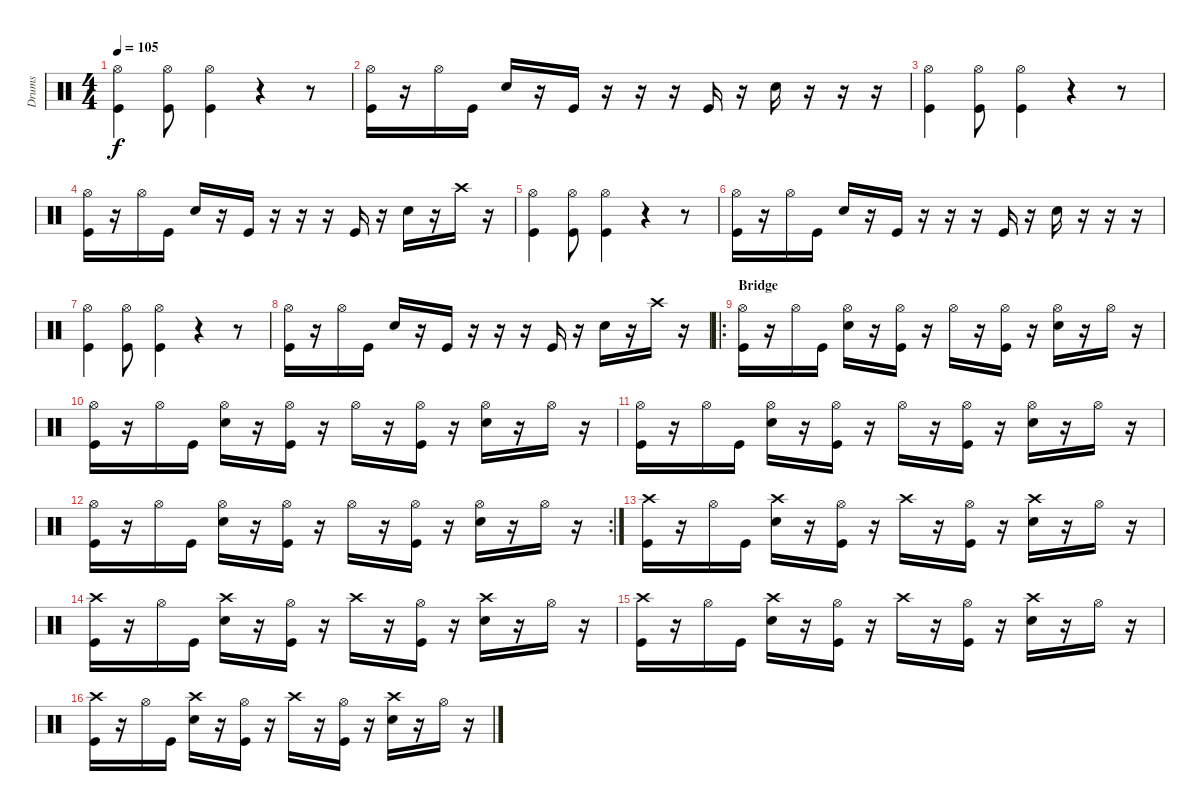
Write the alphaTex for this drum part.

\track ("Drums" "Drums") {instrument percussion}
\staff {score}
\articulation defaults
\ts (4 4)
\tempo 105
\clef neutral
\ks c
("Hi-Hat (open)" "Kick (hit)").4{dy f} ("Hi-Hat (open)" "Kick (hit)").8 ("Hi-Hat (open)" "Kick (hit)").4 r.4 r.8 |
("Hi-Hat (open)" "Kick (hit)").16 r.16 "Hi-Hat (open)".16 "Kick (hit)".16 "Snare (hit) 2".16 r.16 "Kick (hit)".16 r.16 r.16 r.16 "Kick (hit)".16 r.16 "Snare (hit) 2".16 r.16 r.16 r.16 |
("Hi-Hat (open)" "Kick (hit)").4 ("Hi-Hat (open)" "Kick (hit)").8 ("Hi-Hat (open)" "Kick (hit)").4 r.4 r.8 |
("Hi-Hat (open)" "Kick (hit)").16 r.16 "Hi-Hat (open)".16 "Kick (hit)".16 "Snare (hit) 2".16 r.16 "Kick (hit)".16 r.16 r.16 r.16 "Kick (hit)".16 r.16 "Snare (hit) 2".16 r.16 "Crash high (hit)".16 r.16 |
("Hi-Hat (open)" "Kick (hit)").4 ("Hi-Hat (open)" "Kick (hit)").8 ("Hi-Hat (open)" "Kick (hit)").4 r.4 r.8 |
("Hi-Hat (open)" "Kick (hit)").16 r.16 "Hi-Hat (open)".16 "Kick (hit)".16 "Snare (hit) 2".16 r.16 "Kick (hit)".16 r.16 r.16 r.16 "Kick (hit)".16 r.16 "Snare (hit) 2".16 r.16 r.16 r.16 |
("Hi-Hat (open)" "Kick (hit)").4 ("Hi-Hat (open)" "Kick (hit)").8 ("Hi-Hat (open)" "Kick (hit)").4 r.4 r.8 |
("Hi-Hat (open)" "Kick (hit)").16 r.16 "Hi-Hat (open)".16 "Kick (hit)".16 "Snare (hit) 2".16 r.16 "Kick (hit)".16 r.16 r.16 r.16 "Kick (hit)".16 r.16 "Snare (hit) 2".16 r.16 "Crash high (hit)".16 r.16 |
\ro
\section ("" "Bridge")
("Hi-Hat (open)" "Kick (hit)").16 r.16 "Hi-Hat (open)".16 "Kick (hit)".16 ("Hi-Hat (open)" "Snare (hit) 2").16 r.16 ("Hi-Hat (open)" "Kick (hit)").16 r.16 "Hi-Hat (open)".16 r.16 ("Hi-Hat (open)" "Kick (hit)").16 r.16 ("Hi-Hat (open)" "Snare (hit) 2").16 r.16 "Hi-Hat (open)".16 r.16 |
("Hi-Hat (open)" "Kick (hit)").16 r.16 "Hi-Hat (open)".16 "Kick (hit)".16 ("Hi-Hat (open)" "Snare (hit) 2").16 r.16 ("Hi-Hat (open)" "Kick (hit)").16 r.16 "Hi-Hat (open)".16 r.16 ("Hi-Hat (open)" "Kick (hit)").16 r.16 ("Hi-Hat (open)" "Snare (hit) 2").16 r.16 "Hi-Hat (open)".16 r.16 |
("Hi-Hat (open)" "Kick (hit)").16 r.16 "Hi-Hat (open)".16 "Kick (hit)".16 ("Hi-Hat (open)" "Snare (hit) 2").16 r.16 ("Hi-Hat (open)" "Kick (hit)").16 r.16 "Hi-Hat (open)".16 r.16 ("Hi-Hat (open)" "Kick (hit)").16 r.16 ("Hi-Hat (open)" "Snare (hit) 2").16 r.16 "Hi-Hat (open)".16 r.16 |
\rc 2
("Hi-Hat (open)" "Kick (hit)").16 r.16 "Hi-Hat (open)".16 "Kick (hit)".16 ("Hi-Hat (open)" "Snare (hit) 2").16 r.16 ("Hi-Hat (open)" "Kick (hit)").16 r.16 "Hi-Hat (open)".16 r.16 ("Hi-Hat (open)" "Kick (hit)").16 r.16 ("Hi-Hat (open)" "Snare (hit) 2").16 r.16 "Hi-Hat (open)".16 r.16 |
("Crash high (hit)" "Kick (hit)").16 r.16 "Hi-Hat (open)".16 "Kick (hit)".16 ("Crash high (hit)" "Snare (hit) 2").16 r.16 ("Hi-Hat (open)" "Kick (hit)").16 r.16 "Crash high (hit)".16 r.16 ("Hi-Hat (open)" "Kick (hit)").16 r.16 ("Crash high (hit)" "Snare (hit) 2").16 r.16 "Hi-Hat (open)".16 r.16 |
("Crash high (hit)" "Kick (hit)").16 r.16 "Hi-Hat (open)".16 "Kick (hit)".16 ("Crash high (hit)" "Snare (hit) 2").16 r.16 ("Hi-Hat (open)" "Kick (hit)").16 r.16 "Crash high (hit)".16 r.16 ("Hi-Hat (open)" "Kick (hit)").16 r.16 ("Crash high (hit)" "Snare (hit) 2").16 r.16 "Hi-Hat (open)".16 r.16 |
("Crash high (hit)" "Kick (hit)").16 r.16 "Hi-Hat (open)".16 "Kick (hit)".16 ("Crash high (hit)" "Snare (hit) 2").16 r.16 ("Hi-Hat (open)" "Kick (hit)").16 r.16 "Crash high (hit)".16 r.16 ("Hi-Hat (open)" "Kick (hit)").16 r.16 ("Crash high (hit)" "Snare (hit) 2").16 r.16 "Hi-Hat (open)".16 r.16 |
("Crash high (hit)" "Kick (hit)").16 r.16 "Hi-Hat (open)".16 "Kick (hit)".16 ("Crash high (hit)" "Snare (hit) 2").16 r.16 ("Hi-Hat (open)" "Kick (hit)").16 r.16 "Crash high (hit)".16 r.16 ("Hi-Hat (open)" "Kick (hit)").16 r.16 ("Crash high (hit)" "Snare (hit) 2").16 r.16 "Hi-Hat (open)".16 r.16
